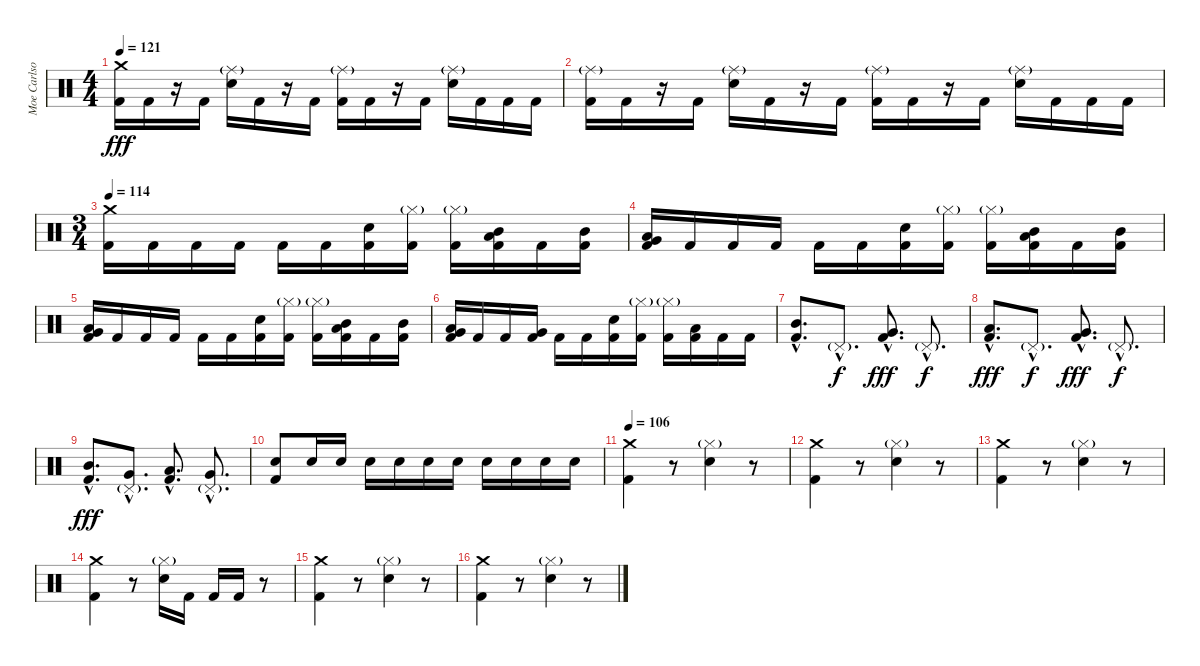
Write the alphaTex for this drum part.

\track ("Moe Carlson" "Moe Carlso") {instrument percussion}
\staff {score}
\articulation defaults
\ts (4 4)
\tempo 121
\clef neutral
\ks c
("Crash medium (hit)" "Kick (hit) 2").16{dy fff} "Kick (hit) 2".16 r.16 "Kick (hit) 2".16 ("Ride (middle)"{g} "Electric Snare (hit)").16 "Kick (hit) 2".16 r.16 "Kick (hit) 2".16 ("Ride (middle)"{g} "Kick (hit) 2").16 "Kick (hit) 2".16 r.16 "Kick (hit) 2".16 ("Ride (middle)"{g} "Electric Snare (hit)").16 "Kick (hit) 2".16 "Kick (hit) 2".16 "Kick (hit) 2".16 |
("Ride (middle)"{g} "Kick (hit) 2").16 "Kick (hit) 2".16 r.16 "Kick (hit) 2".16 ("Ride (middle)"{g} "Electric Snare (hit)").16 "Kick (hit) 2".16 r.16 "Kick (hit) 2".16 ("Ride (middle)"{g} "Kick (hit) 2").16 "Kick (hit) 2".16 r.16 "Kick (hit) 2".16 ("Ride (middle)"{g} "Electric Snare (hit)").16 "Kick (hit) 2".16 "Kick (hit) 2".16 "Kick (hit) 2".16 |
\ts (3 4)
\tempo 114
("Crash medium (hit)" "Kick (hit) 2").16 "Kick (hit) 2".16 "Kick (hit) 2".16 "Kick (hit) 2".16 "Kick (hit) 2".16 "Kick (hit) 2".16 ("Electric Snare (hit)" "Kick (hit) 2").16 ("Hi-Hat (closed)"{g} "Kick (hit) 2").16 ("Hi-Hat (closed)"{g} "Kick (hit) 2").16 ("Mid Tom (hit)" "Low Tom (hit)" "Kick (hit) 2").16 "Kick (hit) 2".16 ("Mid Tom (hit)" "Kick (hit) 2").16 |
("Low Tom (hit)" "Very Low Tom (hit)" "Kick (hit) 2").16 "Kick (hit) 2".16 "Kick (hit) 2".16 "Kick (hit) 2".16 "Kick (hit) 2".16 "Kick (hit) 2".16 ("Electric Snare (hit)" "Kick (hit) 2").16 ("Hi-Hat (closed)"{g} "Kick (hit) 2").16 ("Hi-Hat (closed)"{g} "Kick (hit) 2").16 ("Mid Tom (hit)" "Low Tom (hit)" "Kick (hit) 2").16 "Kick (hit) 2".16 ("Mid Tom (hit)" "Kick (hit) 2").16 |
("Low Tom (hit)" "Very Low Tom (hit)" "Kick (hit) 2").16 "Kick (hit) 2".16 "Kick (hit) 2".16 "Kick (hit) 2".16 "Kick (hit) 2".16 "Kick (hit) 2".16 ("Electric Snare (hit)" "Kick (hit) 2").16 ("Hi-Hat (closed)"{g} "Kick (hit) 2").16 ("Hi-Hat (closed)"{g} "Kick (hit) 2").16 ("Mid Tom (hit)" "Low Tom (hit)" "Kick (hit) 2").16 "Kick (hit) 2".16 ("Mid Tom (hit)" "Kick (hit) 2").16 |
("Low Tom (hit)" "Very Low Tom (hit)" "Kick (hit) 2").16 "Kick (hit) 2".16 "Kick (hit) 2".16 ("Very Low Tom (hit)" "Kick (hit) 2").16 "Kick (hit) 2".16 "Kick (hit) 2".16 ("Electric Snare (hit)" "Kick (hit) 2").16 ("Hi-Hat (closed)"{g} "Kick (hit) 2").16 ("Hi-Hat (closed)"{g} "Kick (hit) 2").16 ("Low Tom (hit)" "Kick (hit) 2").16 "Kick (hit) 2".16 "Kick (hit) 2".16 |
("Mid Tom (hit)"{hac} "Kick (hit) 2"{hac}).8{d} "Pedal Hi-Hat (hit)"{g hac}.8{d dy f} ("Very Low Tom (hit)"{hac} "Kick (hit) 2"{hac}).8{d dy fff} "Pedal Hi-Hat (hit)"{g hac}.8{d dy f} |
("Low Tom (hit)"{hac} "Kick (hit) 2"{hac}).8{d dy fff} "Pedal Hi-Hat (hit)"{g hac}.8{d dy f} ("Very Low Tom (hit)"{hac} "Kick (hit) 2"{hac}).8{d dy fff} "Pedal Hi-Hat (hit)"{g hac}.8{d dy f} |
("Mid Tom (hit)"{hac} "Kick (hit) 2"{hac}).8{d dy fff} ("Very Low Tom (hit)"{hac} "Pedal Hi-Hat (hit)"{g hac}).8{d} ("Low Tom (hit)"{hac} "Kick (hit) 2"{hac}).8{d} ("Very Low Tom (hit)"{hac} "Pedal Hi-Hat (hit)"{g hac}).8{d} |
("Electric Snare (hit)" "Kick (hit) 2").8 "Electric Snare (hit)".16 "Electric Snare (hit)".16 "Electric Snare (hit)".16 "Electric Snare (hit)".16 "Electric Snare (hit)".16 "Electric Snare (hit)".16 "Electric Snare (hit)".16 "Electric Snare (hit)".16 "Electric Snare (hit)".16 "Electric Snare (hit)".16 |
\tempo 106
("Crash medium (hit)" "Kick (hit) 2").4 r.8 ("Hi-Hat (closed)"{g} "Electric Snare (hit)").4 r.8 |
("Crash medium (hit)" "Kick (hit) 2").4 r.8 ("Hi-Hat (closed)"{g} "Electric Snare (hit)").4 r.8 |
("Crash medium (hit)" "Kick (hit) 2").4 r.8 ("Hi-Hat (closed)"{g} "Electric Snare (hit)").4 r.8 |
("Crash medium (hit)" "Kick (hit) 2").4 r.8 ("Hi-Hat (closed)"{g} "Electric Snare (hit)").16 "Kick (hit) 2".16 "Kick (hit) 2".16 "Kick (hit) 2".16 r.8 |
("Crash medium (hit)" "Kick (hit) 2").4 r.8 ("Hi-Hat (closed)"{g} "Electric Snare (hit)").4 r.8 |
("Crash medium (hit)" "Kick (hit) 2").4 r.8 ("Hi-Hat (closed)"{g} "Electric Snare (hit)").4 r.8
